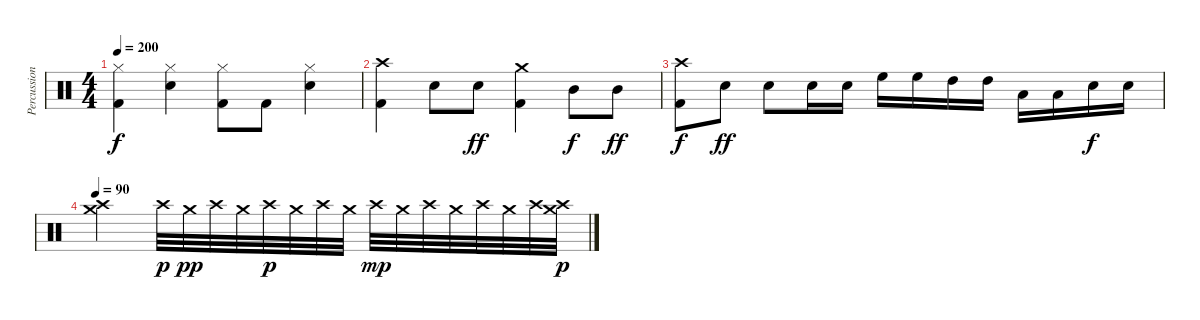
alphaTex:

\track ("Percussion" "Percussion") {instrument percussion}
\staff {score}
\articulation defaults
\ts (4 4)
\tempo 200
\clef neutral
\ks c
("Hi-Hat (closed)" "Kick (hit) 2").4{dy f} ("Hi-Hat (closed)" "Snare (hit) 2").4 ("Hi-Hat (closed)" "Kick (hit) 2").8 "Kick (hit) 2".8 ("Hi-Hat (closed)" "Snare (hit) 2").4 |
("Crash high (hit)" "Kick (hit) 2").4 "Snare (hit) 2".8 "Snare (hit) 2".8{dy ff} ("Crash medium (hit)" "Kick (hit) 2").4 "Mid Tom (hit)".8{dy f} "Mid Tom (hit)".8{dy ff} |
("Crash high (hit)" "Kick (hit) 2").8{dy f} "Snare (hit) 2".8{dy ff} "Snare (hit) 2".8 "Snare (hit) 2".16 "Snare (hit) 2".16 "High Floor Tom (hit)".16 "High Floor Tom (hit)".16 "High Tom (hit)".16 "High Tom (hit)".16 "Low Tom (hit)".16 "Low Tom (hit)".16 "Snare (hit) 2".16{dy f} "Snare (hit) 2".16 |
\tempo 90
("Crash high (hit)" "Crash medium (hit)").2 "Crash high (hit)".32{dy p} "Crash medium (hit)".32{dy pp} "Crash high (hit)".32 "Crash medium (hit)".32 "Crash high (hit)".32{dy p} "Crash medium (hit)".32 "Crash high (hit)".32 "Crash medium (hit)".32 "Crash high (hit)".32{dy mp} "Crash medium (hit)".32 "Crash high (hit)".32 "Crash medium (hit)".32 "Crash high (hit)".32 "Crash medium (hit)".32 "Crash high (hit)".32 ("Crash medium (hit)" "Crash high (hit)").32{dy p}
